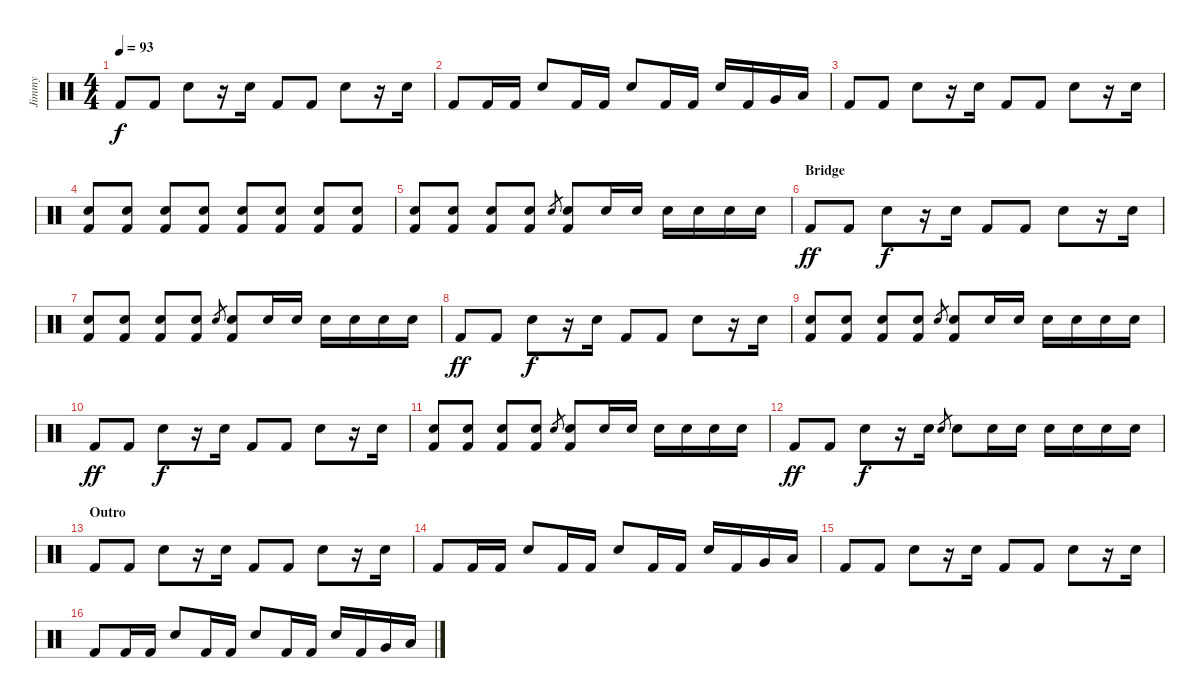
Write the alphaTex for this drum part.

\track ("Jimmy" "Jimmy") {instrument percussion}
\staff {score}
\articulation defaults
\ts (4 4)
\tempo 93
\clef neutral
\ks c "Kick (hit) 2".8{dy f} "Kick (hit) 2".8 "Snare (hit) 2".8
r.16 "Snare (hit) 2".16 "Kick (hit) 2".8 "Kick (hit) 2".8 "Snare (hit) 2".8 r.16 "Snare (hit) 2".16 |
"Kick (hit) 2".8 "Kick (hit) 2".16 "Kick (hit) 2".16 "Snare (hit) 2".8 "Kick (hit) 2".16 "Kick (hit) 2".16 "Snare (hit) 2".8 "Kick (hit) 2".16 "Kick (hit) 2".16 "Snare (hit) 2".16 "Kick (hit) 2".16 "Very Low Tom (hit)".16 "Low Floor Tom (hit)".16 |
"Kick (hit) 2".8 "Kick (hit) 2".8 "Snare (hit) 2".8 r.16 "Snare (hit) 2".16 "Kick (hit) 2".8 "Kick (hit) 2".8 "Snare (hit) 2".8 r.16 "Snare (hit) 2".16 |
("Snare (hit) 2" "Kick (hit) 2").8 ("Snare (hit) 2" "Kick (hit) 2").8 ("Snare (hit) 2" "Kick (hit) 2").8 ("Snare (hit) 2" "Kick (hit) 2").8 ("Snare (hit) 2" "Kick (hit) 2").8 ("Snare (hit) 2" "Kick (hit) 2").8 ("Snare (hit) 2" "Kick (hit) 2").8 ("Snare (hit) 2" "Kick (hit) 2").8 |
("Snare (hit) 2" "Kick (hit) 2").8 ("Snare (hit) 2" "Kick (hit) 2").8 ("Snare (hit) 2" "Kick (hit) 2").8 ("Snare (hit) 2" "Kick (hit) 2").8 "Snare (hit) 2".8{gr} ("Snare (hit) 2" "Kick (hit) 2").8 "Snare (hit) 2".16 "Snare (hit) 2".16 "Snare (hit) 2".16 "Snare (hit) 2".16 "Snare (hit) 2".16 "Snare (hit) 2".16 |
\section ("" "Bridge")
"Kick (hit) 2".8{dy ff} "Kick (hit) 2".8 "Snare (hit) 2".8{dy f} r.16 "Snare (hit) 2".16 "Kick (hit) 2".8 "Kick (hit) 2".8 "Snare (hit) 2".8 r.16 "Snare (hit) 2".16 |
("Snare (hit) 2" "Kick (hit) 2").8 ("Snare (hit) 2" "Kick (hit) 2").8 ("Snare (hit) 2" "Kick (hit) 2").8 ("Snare (hit) 2" "Kick (hit) 2").8 "Snare (hit) 2".8{gr} ("Snare (hit) 2" "Kick (hit) 2").8 "Snare (hit) 2".16 "Snare (hit) 2".16 "Snare (hit) 2".16 "Snare (hit) 2".16 "Snare (hit) 2".16 "Snare (hit) 2".16 |
"Kick (hit) 2".8{dy ff} "Kick (hit) 2".8 "Snare (hit) 2".8{dy f} r.16 "Snare (hit) 2".16 "Kick (hit) 2".8 "Kick (hit) 2".8 "Snare (hit) 2".8 r.16 "Snare (hit) 2".16 |
("Snare (hit) 2" "Kick (hit) 2").8 ("Snare (hit) 2" "Kick (hit) 2").8 ("Snare (hit) 2" "Kick (hit) 2").8 ("Snare (hit) 2" "Kick (hit) 2").8 "Snare (hit) 2".8{gr} ("Snare (hit) 2" "Kick (hit) 2").8 "Snare (hit) 2".16 "Snare (hit) 2".16 "Snare (hit) 2".16 "Snare (hit) 2".16 "Snare (hit) 2".16 "Snare (hit) 2".16 |
"Kick (hit) 2".8{dy ff} "Kick (hit) 2".8 "Snare (hit) 2".8{dy f} r.16 "Snare (hit) 2".16 "Kick (hit) 2".8 "Kick (hit) 2".8 "Snare (hit) 2".8 r.16 "Snare (hit) 2".16 |
("Snare (hit) 2" "Kick (hit) 2").8 ("Snare (hit) 2" "Kick (hit) 2").8 ("Snare (hit) 2" "Kick (hit) 2").8 ("Snare (hit) 2" "Kick (hit) 2").8 "Snare (hit) 2".8{gr} ("Snare (hit) 2" "Kick (hit) 2").8 "Snare (hit) 2".16 "Snare (hit) 2".16 "Snare (hit) 2".16 "Snare (hit) 2".16 "Snare (hit) 2".16 "Snare (hit) 2".16 |
"Kick (hit) 2".8{dy ff} "Kick (hit) 2".8 "Snare (hit) 2".8{dy f} r.16 "Snare (hit) 2".16 "Snare (hit) 2".8{gr} "Snare (hit) 2".8 "Snare (hit) 2".16 "Snare (hit) 2".16 "Snare (hit) 2".16 "Snare (hit) 2".16 "Snare (hit) 2".16 "Snare (hit) 2".16 |
\section ("" "Outro")
"Kick (hit) 2".8 "Kick (hit) 2".8 "Snare (hit) 2".8 r.16 "Snare (hit) 2".16 "Kick (hit) 2".8 "Kick (hit) 2".8 "Snare (hit) 2".8 r.16 "Snare (hit) 2".16 |
"Kick (hit) 2".8 "Kick (hit) 2".16 "Kick (hit) 2".16 "Snare (hit) 2".8 "Kick (hit) 2".16 "Kick (hit) 2".16 "Snare (hit) 2".8 "Kick (hit) 2".16 "Kick (hit) 2".16 "Snare (hit) 2".16 "Kick (hit) 2".16 "Very Low Tom (hit)".16 "Low Floor Tom (hit)".16 |
"Kick (hit) 2".8 "Kick (hit) 2".8 "Snare (hit) 2".8 r.16 "Snare (hit) 2".16 "Kick (hit) 2".8 "Kick (hit) 2".8 "Snare (hit) 2".8 r.16 "Snare (hit) 2".16 |
"Kick (hit) 2".8 "Kick (hit) 2".16 "Kick (hit) 2".16 "Snare (hit) 2".8 "Kick (hit) 2".16 "Kick (hit) 2".16 "Snare (hit) 2".8 "Kick (hit) 2".16 "Kick (hit) 2".16 "Snare (hit) 2".16 "Kick (hit) 2".16 "Very Low Tom (hit)".16 "Low Floor Tom (hit)".16
